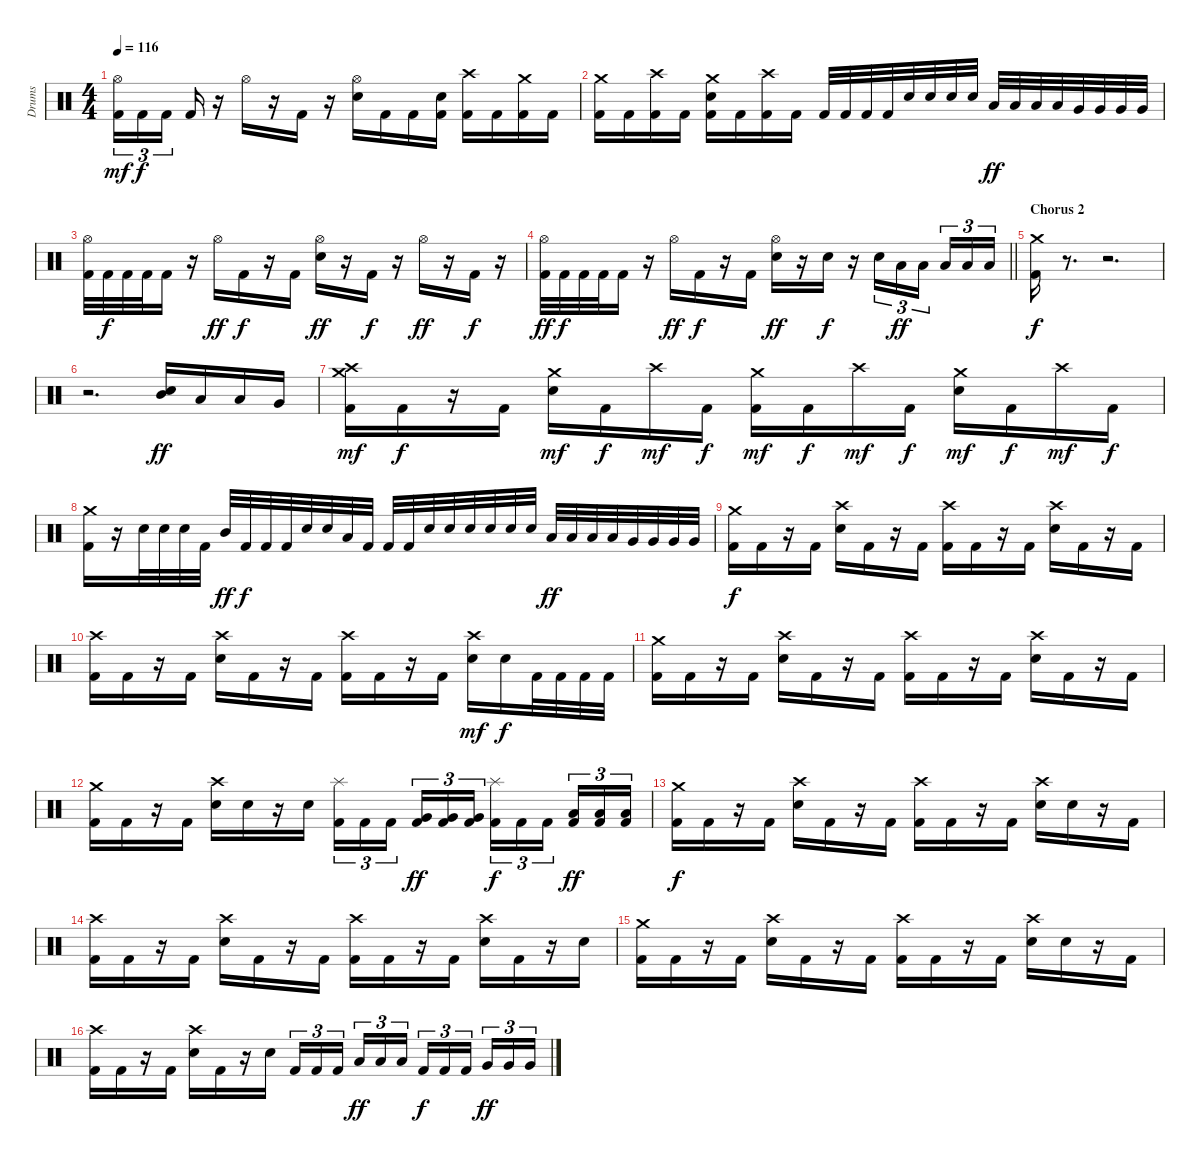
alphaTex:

\track ("Drums" "Drums") {instrument percussion}
\staff {score}
\articulation defaults
\ts (4 4)
\tempo 116
\clef neutral
\ks c
("Hi-Hat (open)" "Kick (hit) 2").16{tu (3 2) dy mf} "Kick (hit) 2".16{tu (3 2) dy f} "Kick (hit) 2".16{tu (3 2)} "Kick (hit) 2".16 r.16 "Hi-Hat (open)".16 r.16 "Kick (hit) 2".16 r.16 ("Hi-Hat (open)" "Snare (hit) 2").16 "Kick (hit) 2".16 "Kick (hit) 2".16 ("Snare (hit) 2" "Kick (hit) 2").16 ("Crash high (hit)" "Kick (hit) 2").16 "Kick (hit) 2".16 ("Crash medium (hit)" "Kick (hit) 2").16 "Kick (hit) 2".16 |
("Crash medium (hit)" "Kick (hit) 2").16 "Kick (hit) 2".16 ("Crash high (hit)" "Kick (hit) 2").16 "Kick (hit) 2".16 ("Crash medium (hit)" "Snare (hit) 2" "Kick (hit) 2").16 "Kick (hit) 2".16 ("Crash high (hit)" "Kick (hit) 2").16 "Kick (hit) 2".16 "Kick (hit) 2".32 "Kick (hit) 2".32 "Kick (hit) 2".32 "Kick (hit) 2".32 "Snare (hit) 2".32 "Snare (hit) 2".32 "Snare (hit) 2".32 "Snare (hit) 2".32 "Low Tom (hit)".32{dy ff} "Low Tom (hit)".32 "Low Tom (hit)".32 "Low Tom (hit)".32 "Very Low Tom (hit)".32 "Very Low Tom (hit)".32 "Very Low Tom (hit)".32 "Very Low Tom (hit)".32 |
("Hi-Hat (open)" "Kick (hit) 2").32 "Kick (hit) 2".32{dy f} "Kick (hit) 2".32 "Kick (hit) 2".32 "Kick (hit) 2".16 r.16 "Hi-Hat (open)".16{dy ff} "Kick (hit) 2".16{dy f} r.16 "Kick (hit) 2".16 ("Hi-Hat (open)" "Snare (hit) 2").16{dy ff} r.16 "Kick (hit) 2".16{dy f} r.16 "Hi-Hat (open)".16{dy ff} r.16 "Kick (hit) 2".16{dy f} r.16 |
\barLineRight lightlight
("Hi-Hat (open)" "Kick (hit) 2").32{dy ff} "Kick (hit) 2".32{dy f} "Kick (hit) 2".32 "Kick (hit) 2".32 "Kick (hit) 2".16 r.16 "Hi-Hat (open)".16{dy ff} "Kick (hit) 2".16{dy f} r.16 "Kick (hit) 2".16 ("Hi-Hat (open)" "Snare (hit) 2").16{dy ff} r.16 "Snare (hit) 2".16{dy f} r.16 "Snare (hit) 2".16{tu (3 2)} "Low Tom (hit)".16{tu (3 2) dy ff} "Low Tom (hit)".16{tu (3 2)} "Low Tom (hit)".16{tu (3 2)} "Low Floor Tom (hit)".16{tu (3 2)} "Low Floor Tom (hit)".16{tu (3 2)} |
\section ("" "Chorus 2")
("Crash medium (hit)" "Kick (hit) 2").16{dy f} r.8{d} r.2{d} |
r.2{d} ("Mid Tom (hit)" "Snare (hit) 2").16{dy ff} "Low Tom (hit)".16 "Low Tom (hit)".16 "Very Low Tom (hit)".16 |
("Crash medium (hit)" "Crash high (hit)" "Kick (hit) 2").16{dy mf} "Kick (hit) 2".16{dy f} r.16 "Kick (hit) 2".16 ("Crash medium (hit)" "Snare (hit) 2").16{dy mf} "Kick (hit) 2".16{dy f} "Crash high (hit)".16{dy mf} "Kick (hit) 2".16{dy f} ("Crash medium (hit)" "Kick (hit) 2").16{dy mf} "Kick (hit) 2".16{dy f} "Crash high (hit)".16{dy mf} "Kick (hit) 2".16{dy f} ("Crash medium (hit)" "Snare (hit) 2").16{dy mf} "Kick (hit) 2".16{dy f} "Crash high (hit)".16{dy mf} "Kick (hit) 2".16{dy f} |
("Crash medium (hit)" "Kick (hit) 2").16 r.16 "Snare (hit) 2".32 "Snare (hit) 2".32 "Snare (hit) 2".32 "Kick (hit) 2".32 "Mid Tom (hit)".32{dy ff} "Kick (hit) 2".32{dy f} "Kick (hit) 2".32 "Kick (hit) 2".32 "Snare (hit) 2".32 "Snare (hit) 2".32 "Low Tom (hit)".32 "Kick (hit) 2".32 "Kick (hit) 2".32 "Kick (hit) 2".32 "Snare (hit) 2".32 "Snare (hit) 2".32 "Snare (hit) 2".32 "Snare (hit) 2".32 "Snare (hit) 2".32 "Snare (hit) 2".32 "Low Tom (hit)".32{dy ff} "Low Tom (hit)".32 "Low Tom (hit)".32 "Low Tom (hit)".32 "Very Low Tom (hit)".32 "Very Low Tom (hit)".32 "Very Low Tom (hit)".32 "Very Low Tom (hit)".32 |
("Crash medium (hit)" "Kick (hit) 2").16{dy f} "Kick (hit) 2".16 r.16 "Kick (hit) 2".16 ("Crash high (hit)" "Snare (hit) 2").16 "Kick (hit) 2".16 r.16 "Kick (hit) 2".16 ("Crash high (hit)" "Kick (hit) 2").16 "Kick (hit) 2".16 r.16 "Kick (hit) 2".16 ("Crash high (hit)" "Snare (hit) 2").16 "Kick (hit) 2".16 r.16 "Kick (hit) 2".16 |
("Crash high (hit)" "Kick (hit) 2").16 "Kick (hit) 2".16 r.16 "Kick (hit) 2".16 ("Crash high (hit)" "Snare (hit) 2").16 "Kick (hit) 2".16 r.16 "Kick (hit) 2".16 ("Crash high (hit)" "Kick (hit) 2").16 "Kick (hit) 2".16 r.16 "Kick (hit) 2".16 ("Crash high (hit)" "Snare (hit) 2").16{dy mf} "Snare (hit) 2".16{dy f} "Kick (hit) 2".32 "Kick (hit) 2".32 "Kick (hit) 2".32 "Kick (hit) 2".32 |
("Crash medium (hit)" "Kick (hit) 2").16 "Kick (hit) 2".16 r.16 "Kick (hit) 2".16 ("Crash high (hit)" "Snare (hit) 2").16 "Kick (hit) 2".16 r.16 "Kick (hit) 2".16 ("Crash high (hit)" "Kick (hit) 2").16 "Kick (hit) 2".16 r.16 "Kick (hit) 2".16 ("Crash high (hit)" "Snare (hit) 2").16 "Kick (hit) 2".16 r.16 "Kick (hit) 2".16 |
("Crash medium (hit)" "Kick (hit) 2").16 "Kick (hit) 2".16 r.16 "Kick (hit) 2".16 ("Crash high (hit)" "Snare (hit) 2").16 "Snare (hit) 2".16 r.16 "Snare (hit) 2".16 ("Splash (hit)" "Kick (hit) 2").16{tu (3 2)} "Kick (hit) 2".16{tu (3 2)} "Kick (hit) 2".16{tu (3 2)} ("Very Low Tom (hit)" "Kick (hit) 2").16{tu (3 2) dy ff} ("Very Low Tom (hit)" "Kick (hit) 2").16{tu (3 2)} ("Very Low Tom (hit)" "Kick (hit) 2").16{tu (3 2)} ("Splash (hit)" "Kick (hit) 2").16{tu (3 2) dy f} "Kick (hit) 2".16{tu (3 2)} "Kick (hit) 2".16{tu (3 2)} ("Low Floor Tom (hit)" "Kick (hit) 2").16{tu (3 2) dy ff} ("Low Floor Tom (hit)" "Kick (hit) 2").16{tu (3 2)} ("Low Floor Tom (hit)" "Kick (hit) 2").16{tu (3 2)} |
("Crash medium (hit)" "Kick (hit) 2").16{dy f} "Kick (hit) 2".16 r.16 "Kick (hit) 2".16 ("Crash high (hit)" "Snare (hit) 2").16 "Kick (hit) 2".16 r.16 "Kick (hit) 2".16 ("Crash high (hit)" "Kick (hit) 2").16 "Kick (hit) 2".16 r.16 "Kick (hit) 2".16 ("Crash high (hit)" "Snare (hit) 2").16 "Snare (hit) 2".16 r.16 "Kick (hit) 2".16 |
("Crash high (hit)" "Kick (hit) 2").16 "Kick (hit) 2".16 r.16 "Kick (hit) 2".16 ("Crash high (hit)" "Snare (hit) 2").16 "Kick (hit) 2".16 r.16 "Kick (hit) 2".16 ("Crash high (hit)" "Kick (hit) 2").16 "Kick (hit) 2".16 r.16 "Kick (hit) 2".16 ("Crash high (hit)" "Snare (hit) 2").16 "Kick (hit) 2".16 r.16 "Snare (hit) 2".16 |
("Crash medium (hit)" "Kick (hit) 2").16 "Kick (hit) 2".16 r.16 "Kick (hit) 2".16 ("Crash high (hit)" "Snare (hit) 2").16 "Kick (hit) 2".16 r.16 "Kick (hit) 2".16 ("Crash high (hit)" "Kick (hit) 2").16 "Kick (hit) 2".16 r.16 "Kick (hit) 2".16 ("Crash high (hit)" "Snare (hit) 2").16 "Snare (hit) 2".16 r.16 "Kick (hit) 2".16 |
("Crash high (hit)" "Kick (hit) 2").16 "Kick (hit) 2".16 r.16 "Kick (hit) 2".16 ("Crash high (hit)" "Snare (hit) 2").16 "Kick (hit) 2".16 r.16 "Snare (hit) 2".16 "Kick (hit) 2".16{tu (3 2)} "Kick (hit) 2".16{tu (3 2)} "Kick (hit) 2".16{tu (3 2)} "Low Tom (hit)".16{tu (3 2) dy ff} "Low Tom (hit)".16{tu (3 2)} "Low Tom (hit)".16{tu (3 2)} "Kick (hit) 2".16{tu (3 2) dy f} "Kick (hit) 2".16{tu (3 2)} "Kick (hit) 2".16{tu (3 2)} "Very Low Tom (hit)".16{tu (3 2) dy ff} "Very Low Tom (hit)".16{tu (3 2)} "Very Low Tom (hit)".16{tu (3 2)}
